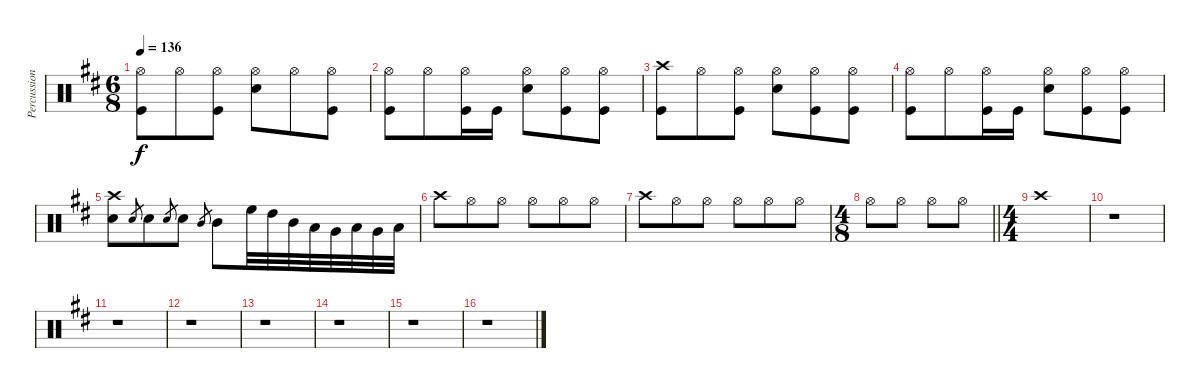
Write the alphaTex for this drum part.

\track ("Percussion" "Percussion") {instrument percussion}
\staff {score}
\articulation defaults
\ts (6 8)
\tempo 136
\clef neutral
\ks d
("Hi-Hat (open)" "Kick (hit)").8{dy f} "Hi-Hat (open)".8 ("Hi-Hat (open)" "Kick (hit)").8 ("Hi-Hat (open)" "Snare (hit) 2").8 "Hi-Hat (open)".8 ("Hi-Hat (open)" "Kick (hit)").8 |
("Hi-Hat (open)" "Kick (hit)").8 "Hi-Hat (open)".8 ("Hi-Hat (open)" "Kick (hit)").16 "Kick (hit)".16 ("Snare (hit) 2" "Hi-Hat (open)").8 ("Kick (hit)" "Hi-Hat (open)").8 ("Kick (hit)" "Hi-Hat (open)").8 |
("Crash high (hit)" "Kick (hit)").8 "Hi-Hat (open)".8 ("Hi-Hat (open)" "Kick (hit)").8 ("Snare (hit) 2" "Hi-Hat (open)").8 ("Hi-Hat (open)" "Kick (hit)").8 ("Hi-Hat (open)" "Kick (hit)").8 |
("Hi-Hat (open)" "Kick (hit)").8 "Hi-Hat (open)".8 ("Hi-Hat (open)" "Kick (hit)").16 "Kick (hit)".16 ("Snare (hit) 2" "Hi-Hat (open)").8 ("Kick (hit)" "Hi-Hat (open)").8 ("Kick (hit)" "Hi-Hat (open)").8 |
("Snare (hit) 2" "Crash high (hit)").8 "Snare (hit) 2".8{gr} "Snare (hit) 2".8 "Snare (hit) 2".8{gr} "Snare (hit) 2".8 "Mid Tom (hit)".8{gr} "Mid Tom (hit)".8 "High Floor Tom (hit)".32 "High Tom (hit)".32 "Mid Tom (hit)".32 "Low Tom (hit)".32 "Very Low Tom (hit)".32 "Low Floor Tom (hit)".32 "Very Low Tom (hit)".32 "Low Tom (hit)".32 |
"Crash high (hit)".8 "Hi-Hat (open)".8 "Hi-Hat (open)".8 "Hi-Hat (open)".8 "Hi-Hat (open)".8 "Hi-Hat (open)".8 |
"Crash high (hit)".8 "Hi-Hat (open)".8 "Hi-Hat (open)".8 "Hi-Hat (open)".8 "Hi-Hat (open)".8 "Hi-Hat (open)".8 |
\ts (4 8)
\barLineRight lightlight "Hi-Hat (open)".8 "Hi-Hat (open)".8 "Hi-Hat (open)".8 "Hi-Hat (open)".8
|
\ts (4 4)
"Crash high (hit)".1 |
r.1 |
r.1 |
r.1 |
r.1 |
r.1 |
r.1 |
r.1
